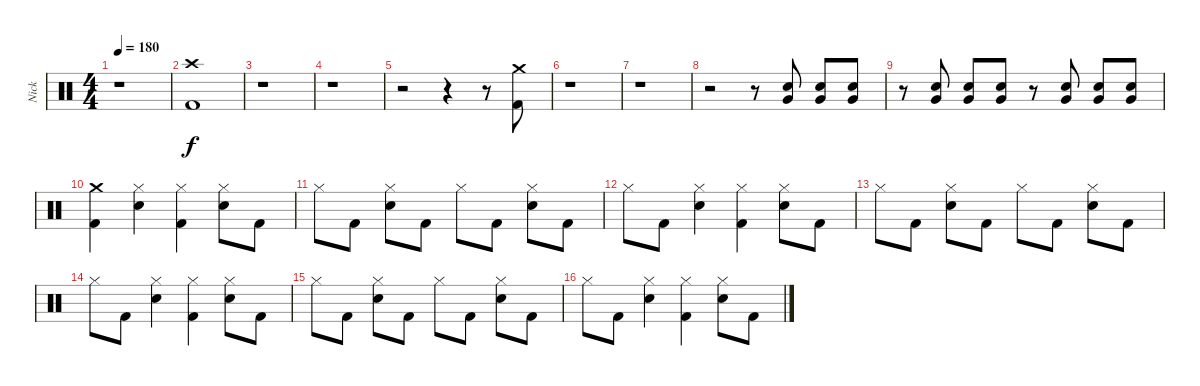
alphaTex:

\track ("Nick" "Nick") {instrument percussion}
\staff {score}
\articulation defaults
\ts (4 4)
\tempo 180
\clef neutral
\ks c
r.1{dy f} |
("Crash high (hit)" "Kick (hit) 2").1 |
r.1 |
r.1 |
r.2 r.4 r.8 ("Crash medium (hit)" "Kick (hit) 2").8 |
r.1 |
r.1 |
r.2 r.8 ("Electric Snare (hit)" "Very Low Tom (hit)").8 ("Electric Snare (hit)" "Very Low Tom (hit)").8 ("Electric Snare (hit)" "Very Low Tom (hit)").8 |
r.8 ("Electric Snare (hit)" "Very Low Tom (hit)").8 ("Electric Snare (hit)" "Very Low Tom (hit)").8 ("Electric Snare (hit)" "Very Low Tom (hit)").8 r.8 ("Electric Snare (hit)" "Very Low Tom (hit)").8 ("Electric Snare (hit)" "Very Low Tom (hit)").8 ("Electric Snare (hit)" "Very Low Tom (hit)").8 |
("Crash medium (hit)" "Kick (hit) 2").4 ("Hi-Hat (closed)" "Electric Snare (hit)").4 ("Hi-Hat (closed)" "Kick (hit) 2").4 ("Hi-Hat (closed)" "Electric Snare (hit)").8 "Kick (hit) 2".8 |
"Hi-Hat (closed)".8 "Kick (hit) 2".8 ("Hi-Hat (closed)" "Electric Snare (hit)").8 "Kick (hit) 2".8 "Hi-Hat (closed)".8 "Kick (hit) 2".8 ("Hi-Hat (closed)" "Electric Snare (hit)").8 "Kick (hit) 2".8 |
"Hi-Hat (closed)".8 "Kick (hit) 2".8 ("Hi-Hat (closed)" "Electric Snare (hit)").4 ("Hi-Hat (closed)" "Kick (hit) 2").4 ("Hi-Hat (closed)" "Electric Snare (hit)").8 "Kick (hit) 2".8 |
"Hi-Hat (closed)".8 "Kick (hit) 2".8 ("Hi-Hat (closed)" "Electric Snare (hit)").8 "Kick (hit) 2".8 "Hi-Hat (closed)".8 "Kick (hit) 2".8 ("Hi-Hat (closed)" "Electric Snare (hit)").8 "Kick (hit) 2".8 |
"Hi-Hat (closed)".8 "Kick (hit) 2".8 ("Hi-Hat (closed)" "Electric Snare (hit)").4 ("Hi-Hat (closed)" "Kick (hit) 2").4 ("Hi-Hat (closed)" "Electric Snare (hit)").8 "Kick (hit) 2".8 |
"Hi-Hat (closed)".8 "Kick (hit) 2".8 ("Hi-Hat (closed)" "Electric Snare (hit)").8 "Kick (hit) 2".8 "Hi-Hat (closed)".8 "Kick (hit) 2".8 ("Hi-Hat (closed)" "Electric Snare (hit)").8 "Kick (hit) 2".8 |
"Hi-Hat (closed)".8 "Kick (hit) 2".8 ("Hi-Hat (closed)" "Electric Snare (hit)").4 ("Hi-Hat (closed)" "Kick (hit) 2").4 ("Hi-Hat (closed)" "Electric Snare (hit)").8 "Kick (hit) 2".8
